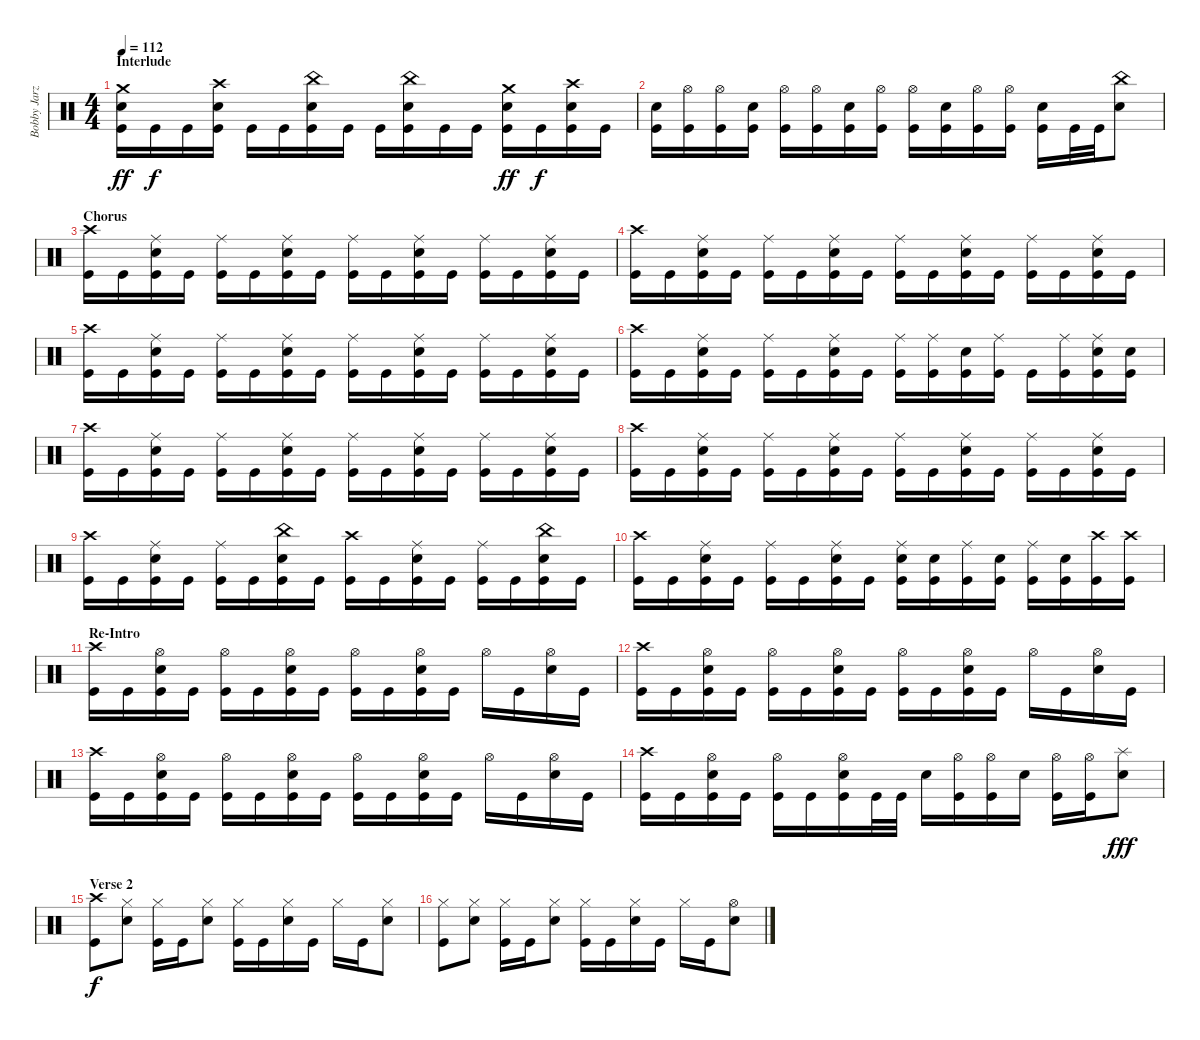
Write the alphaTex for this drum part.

\track ("Bobby Jarzombek" "Bobby Jarz") {instrument percussion}
\staff {score}
\articulation defaults
\ts (4 4)
\section ("" "Interlude")
\tempo 112
\clef neutral
\ks c
("Crash medium (hit)" "Electric Snare (hit)" "Kick (hit)").16{dy ff} "Kick (hit)".16{dy f} "Kick (hit)".16 ("Crash high (hit)" "Electric Snare (hit)" "Kick (hit)").16 "Kick (hit)".16 "Kick (hit)".16 ("China (hit)" "Electric Snare (hit)" "Kick (hit)").16 "Kick (hit)".16 "Kick (hit)".16 ("China (hit)" "Electric Snare (hit)" "Kick (hit)").16 "Kick (hit)".16 "Kick (hit)".16 ("Crash medium (hit)" "Electric Snare (hit)" "Kick (hit)").16{dy ff} "Kick (hit)".16{dy f} ("Crash high (hit)" "Electric Snare (hit)" "Kick (hit)").16 "Kick (hit)".16 |
("Electric Snare (hit)" "Kick (hit)").16 ("Hi-Hat (open)" "Kick (hit)").16 ("Hi-Hat (open)" "Kick (hit)").16 ("Electric Snare (hit)" "Kick (hit)").16 ("Hi-Hat (open)" "Kick (hit)").16 ("Hi-Hat (open)" "Kick (hit)").16 ("Electric Snare (hit)" "Kick (hit)").16 ("Hi-Hat (open)" "Kick (hit)").16 ("Hi-Hat (open)" "Kick (hit)").16 ("Electric Snare (hit)" "Kick (hit)").16 ("Hi-Hat (open)" "Kick (hit)").16 ("Hi-Hat (open)" "Kick (hit)").16 ("Electric Snare (hit)" "Kick (hit)").16 "Kick (hit)".32 "Kick (hit)".32 ("China (hit)" "Electric Snare (hit)").8 |
\section ("" "Chorus")
("Crash high (hit)" "Kick (hit)").16 "Kick (hit)".16 ("Ride (middle)" "Electric Snare (hit)" "Kick (hit)").16 "Kick (hit)".16 ("Ride (middle)" "Kick (hit)").16 "Kick (hit)".16 ("Ride (middle)" "Electric Snare (hit)" "Kick (hit)").16 "Kick (hit)".16 ("Ride (middle)" "Kick (hit)").16 "Kick (hit)".16 ("Ride (middle)" "Electric Snare (hit)" "Kick (hit)").16 "Kick (hit)".16 ("Ride (middle)" "Kick (hit)").16 "Kick (hit)".16 ("Ride (middle)" "Electric Snare (hit)" "Kick (hit)").16 "Kick (hit)".16 |
("Crash high (hit)" "Kick (hit)").16 "Kick (hit)".16 ("Ride (middle)" "Electric Snare (hit)" "Kick (hit)").16 "Kick (hit)".16 ("Ride (middle)" "Kick (hit)").16 "Kick (hit)".16 ("Ride (middle)" "Electric Snare (hit)" "Kick (hit)").16 "Kick (hit)".16 ("Ride (middle)" "Kick (hit)").16 "Kick (hit)".16 ("Ride (middle)" "Electric Snare (hit)" "Kick (hit)").16 "Kick (hit)".16 ("Ride (middle)" "Kick (hit)").16 "Kick (hit)".16 ("Ride (middle)" "Electric Snare (hit)" "Kick (hit)").16 "Kick (hit)".16 |
("Crash high (hit)" "Kick (hit)").16 "Kick (hit)".16 ("Ride (middle)" "Electric Snare (hit)" "Kick (hit)").16 "Kick (hit)".16 ("Ride (middle)" "Kick (hit)").16 "Kick (hit)".16 ("Ride (middle)" "Electric Snare (hit)" "Kick (hit)").16 "Kick (hit)".16 ("Ride (middle)" "Kick (hit)").16 "Kick (hit)".16 ("Ride (middle)" "Electric Snare (hit)" "Kick (hit)").16 "Kick (hit)".16 ("Ride (middle)" "Kick (hit)").16 "Kick (hit)".16 ("Ride (middle)" "Electric Snare (hit)" "Kick (hit)").16 "Kick (hit)".16 |
("Crash high (hit)" "Kick (hit)").16 "Kick (hit)".16 ("Ride (middle)" "Electric Snare (hit)" "Kick (hit)").16 "Kick (hit)".16 ("Ride (middle)" "Kick (hit)").16 "Kick (hit)".16 ("Ride (middle)" "Electric Snare (hit)" "Kick (hit)").16 "Kick (hit)".16 ("Ride (middle)" "Kick (hit)").16 ("Ride (middle)" "Kick (hit)").16 ("Electric Snare (hit)" "Kick (hit)").16 ("Ride (middle)" "Kick (hit)").16 "Kick (hit)".16 ("Ride (middle)" "Kick (hit)").16 ("Ride (middle)" "Electric Snare (hit)" "Kick (hit)").16 ("Electric Snare (hit)" "Kick (hit)").16 |
("Crash high (hit)" "Kick (hit)").16 "Kick (hit)".16 ("Ride (middle)" "Electric Snare (hit)" "Kick (hit)").16 "Kick (hit)".16 ("Ride (middle)" "Kick (hit)").16 "Kick (hit)".16 ("Ride (middle)" "Electric Snare (hit)" "Kick (hit)").16 "Kick (hit)".16 ("Ride (middle)" "Kick (hit)").16 "Kick (hit)".16 ("Ride (middle)" "Electric Snare (hit)" "Kick (hit)").16 "Kick (hit)".16 ("Ride (middle)" "Kick (hit)").16 "Kick (hit)".16 ("Ride (middle)" "Electric Snare (hit)" "Kick (hit)").16 "Kick (hit)".16 |
("Crash high (hit)" "Kick (hit)").16 "Kick (hit)".16 ("Ride (middle)" "Electric Snare (hit)" "Kick (hit)").16 "Kick (hit)".16 ("Ride (middle)" "Kick (hit)").16 "Kick (hit)".16 ("Ride (middle)" "Electric Snare (hit)" "Kick (hit)").16 "Kick (hit)".16 ("Ride (middle)" "Kick (hit)").16 "Kick (hit)".16 ("Ride (middle)" "Electric Snare (hit)" "Kick (hit)").16 "Kick (hit)".16 ("Ride (middle)" "Kick (hit)").16 "Kick (hit)".16 ("Ride (middle)" "Electric Snare (hit)" "Kick (hit)").16 "Kick (hit)".16 |
("Crash high (hit)" "Kick (hit)").16 "Kick (hit)".16 ("Ride (middle)" "Electric Snare (hit)" "Kick (hit)").16 "Kick (hit)".16 ("Ride (middle)" "Kick (hit)").16 "Kick (hit)".16 ("China (hit)" "Electric Snare (hit)" "Kick (hit)").16 "Kick (hit)".16 ("Crash high (hit)" "Kick (hit)").16 "Kick (hit)".16 ("Ride (middle)" "Electric Snare (hit)" "Kick (hit)").16 "Kick (hit)".16 ("Ride (middle)" "Kick (hit)").16 "Kick (hit)".16 ("China (hit)" "Electric Snare (hit)" "Kick (hit)").16 "Kick (hit)".16 |
("Crash high (hit)" "Kick (hit)").16 "Kick (hit)".16 ("Ride (middle)" "Electric Snare (hit)" "Kick (hit)").16 "Kick (hit)".16 ("Ride (middle)" "Kick (hit)").16 "Kick (hit)".16 ("Ride (middle)" "Electric Snare (hit)" "Kick (hit)").16 "Kick (hit)".16 ("Ride (middle)" "Electric Snare (hit)" "Kick (hit)").16 ("Electric Snare (hit)" "Kick (hit)").16 ("Ride (middle)" "Kick (hit)").16 ("Electric Snare (hit)" "Kick (hit)").16 ("Ride (middle)" "Kick (hit)").16 ("Electric Snare (hit)" "Kick (hit)").16 ("Crash high (hit)" "Kick (hit)").16 ("Crash high (hit)" "Kick (hit)").16 |
\section ("" "Re-Intro")
("Crash high (hit)" "Kick (hit)").16 "Kick (hit)".16 ("Hi-Hat (open)" "Electric Snare (hit)" "Kick (hit)").16 "Kick (hit)".16 ("Hi-Hat (open)" "Kick (hit)").16 "Kick (hit)".16 ("Hi-Hat (open)" "Electric Snare (hit)" "Kick (hit)").16 "Kick (hit)".16 ("Hi-Hat (open)" "Kick (hit)").16 "Kick (hit)".16 ("Hi-Hat (open)" "Electric Snare (hit)" "Kick (hit)").16 "Kick (hit)".16 "Hi-Hat (open)".16 "Kick (hit)".16 ("Hi-Hat (open)" "Electric Snare (hit)").16 "Kick (hit)".16 |
("Crash high (hit)" "Kick (hit)").16 "Kick (hit)".16 ("Hi-Hat (open)" "Electric Snare (hit)" "Kick (hit)").16 "Kick (hit)".16 ("Hi-Hat (open)" "Kick (hit)").16 "Kick (hit)".16 ("Hi-Hat (open)" "Electric Snare (hit)" "Kick (hit)").16 "Kick (hit)".16 ("Hi-Hat (open)" "Kick (hit)").16 "Kick (hit)".16 ("Hi-Hat (open)" "Electric Snare (hit)" "Kick (hit)").16 "Kick (hit)".16 "Hi-Hat (open)".16 "Kick (hit)".16 ("Hi-Hat (open)" "Electric Snare (hit)").16 "Kick (hit)".16 |
("Crash high (hit)" "Kick (hit)").16 "Kick (hit)".16 ("Hi-Hat (open)" "Electric Snare (hit)" "Kick (hit)").16 "Kick (hit)".16 ("Hi-Hat (open)" "Kick (hit)").16 "Kick (hit)".16 ("Hi-Hat (open)" "Electric Snare (hit)" "Kick (hit)").16 "Kick (hit)".16 ("Hi-Hat (open)" "Kick (hit)").16 "Kick (hit)".16 ("Hi-Hat (open)" "Electric Snare (hit)" "Kick (hit)").16 "Kick (hit)".16 "Hi-Hat (open)".16 "Kick (hit)".16 ("Hi-Hat (open)" "Electric Snare (hit)").16 "Kick (hit)".16 |
("Crash high (hit)" "Kick (hit)").16 "Kick (hit)".16 ("Hi-Hat (open)" "Electric Snare (hit)" "Kick (hit)").16 "Kick (hit)".16 ("Hi-Hat (open)" "Kick (hit)").16 "Kick (hit)".16 ("Hi-Hat (open)" "Electric Snare (hit)" "Kick (hit)").16 "Kick (hit)".32 "Kick (hit)".32 "Electric Snare (hit)".16 ("Hi-Hat (open)" "Kick (hit)").16 ("Hi-Hat (open)" "Kick (hit)").16 "Electric Snare (hit)".16 ("Hi-Hat (open)" "Kick (hit)").16 ("Hi-Hat (open)" "Kick (hit)").16 ("Splash (hit)" "Electric Snare (hit)").8{dy fff} |
\section ("" "Verse 2")
("Crash high (hit)" "Kick (hit)").8{dy f} ("Hi-Hat (closed)" "Electric Snare (hit)").8 ("Hi-Hat (closed)" "Kick (hit)").16 "Kick (hit)".16 ("Hi-Hat (closed)" "Electric Snare (hit)").8 ("Hi-Hat (closed)" "Kick (hit)").16 "Kick (hit)".16 ("Hi-Hat (closed)" "Electric Snare (hit)").16 "Kick (hit)".16 "Hi-Hat (closed)".16 "Kick (hit)".16 ("Hi-Hat (closed)" "Electric Snare (hit)").8 |
("Hi-Hat (closed)" "Kick (hit)").8 ("Hi-Hat (closed)" "Electric Snare (hit)").8 ("Hi-Hat (closed)" "Kick (hit)").16 "Kick (hit)".16 ("Hi-Hat (closed)" "Electric Snare (hit)").8 ("Hi-Hat (closed)" "Kick (hit)").16 "Kick (hit)".16 ("Hi-Hat (closed)" "Electric Snare (hit)").16 "Kick (hit)".16 "Hi-Hat (closed)".16 "Kick (hit)".16 ("Hi-Hat (open)" "Electric Snare (hit)").8
